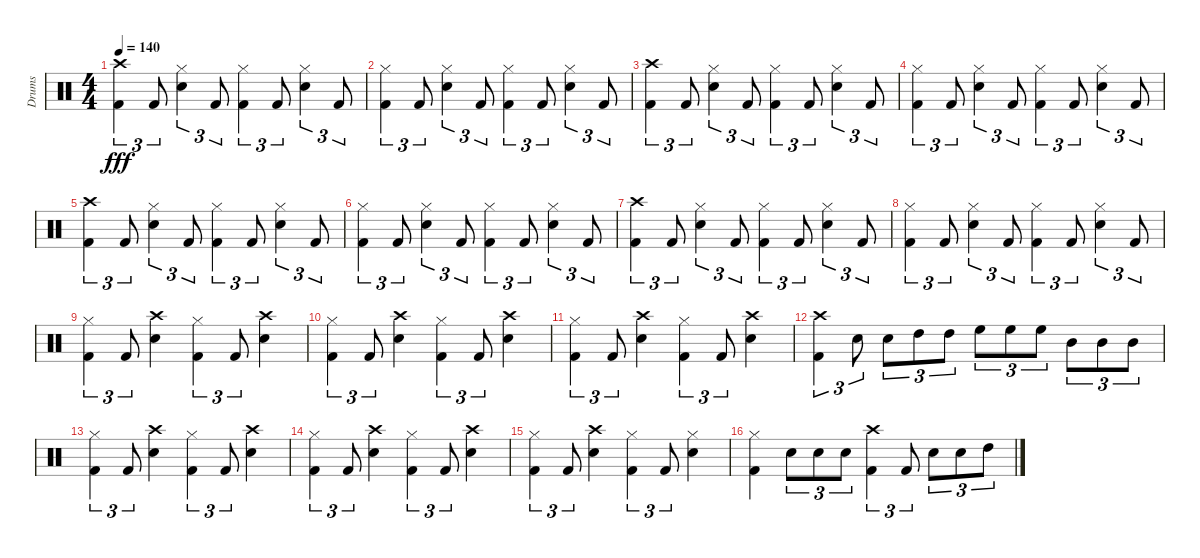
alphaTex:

\track ("Drums" "Drums") {instrument percussion}
\staff {score}
\articulation defaults
\ts (4 4)
\tempo 140
\clef neutral
\ks c
("Crash high (hit)" "Kick (hit) 2").4{tu (3 2) dy fff} "Kick (hit) 2".8{tu (3 2)} ("Hi-Hat (closed)" "Snare (hit) 2").4{tu (3 2)} "Kick (hit) 2".8{tu (3 2)} ("Kick (hit) 2" "Hi-Hat (closed)").4{tu (3 2)} "Kick (hit) 2".8{tu (3 2)} ("Hi-Hat (closed)" "Snare (hit) 2").4{tu (3 2)} "Kick (hit) 2".8{tu (3 2)} |
("Kick (hit) 2" "Hi-Hat (closed)").4{tu (3 2)} "Kick (hit) 2".8{tu (3 2)} ("Hi-Hat (closed)" "Snare (hit) 2").4{tu (3 2)} "Kick (hit) 2".8{tu (3 2)} ("Kick (hit) 2" "Hi-Hat (closed)").4{tu (3 2)} "Kick (hit) 2".8{tu (3 2)} ("Hi-Hat (closed)" "Snare (hit) 2").4{tu (3 2)} "Kick (hit) 2".8{tu (3 2)} |
("Crash high (hit)" "Kick (hit) 2").4{tu (3 2)} "Kick (hit) 2".8{tu (3 2)} ("Hi-Hat (closed)" "Snare (hit) 2").4{tu (3 2)} "Kick (hit) 2".8{tu (3 2)} ("Kick (hit) 2" "Hi-Hat (closed)").4{tu (3 2)} "Kick (hit) 2".8{tu (3 2)} ("Hi-Hat (closed)" "Snare (hit) 2").4{tu (3 2)} "Kick (hit) 2".8{tu (3 2)} |
("Kick (hit) 2" "Hi-Hat (closed)").4{tu (3 2)} "Kick (hit) 2".8{tu (3 2)} ("Hi-Hat (closed)" "Snare (hit) 2").4{tu (3 2)} "Kick (hit) 2".8{tu (3 2)} ("Kick (hit) 2" "Hi-Hat (closed)").4{tu (3 2)} "Kick (hit) 2".8{tu (3 2)} ("Hi-Hat (closed)" "Snare (hit) 2").4{tu (3 2)} "Kick (hit) 2".8{tu (3 2)} |
("Crash high (hit)" "Kick (hit) 2").4{tu (3 2)} "Kick (hit) 2".8{tu (3 2)} ("Hi-Hat (closed)" "Snare (hit) 2").4{tu (3 2)} "Kick (hit) 2".8{tu (3 2)} ("Kick (hit) 2" "Hi-Hat (closed)").4{tu (3 2)} "Kick (hit) 2".8{tu (3 2)} ("Hi-Hat (closed)" "Snare (hit) 2").4{tu (3 2)} "Kick (hit) 2".8{tu (3 2)} |
("Kick (hit) 2" "Hi-Hat (closed)").4{tu (3 2)} "Kick (hit) 2".8{tu (3 2)} ("Hi-Hat (closed)" "Snare (hit) 2").4{tu (3 2)} "Kick (hit) 2".8{tu (3 2)} ("Kick (hit) 2" "Hi-Hat (closed)").4{tu (3 2)} "Kick (hit) 2".8{tu (3 2)} ("Hi-Hat (closed)" "Snare (hit) 2").4{tu (3 2)} "Kick (hit) 2".8{tu (3 2)} |
("Crash high (hit)" "Kick (hit) 2").4{tu (3 2)} "Kick (hit) 2".8{tu (3 2)} ("Hi-Hat (closed)" "Snare (hit) 2").4{tu (3 2)} "Kick (hit) 2".8{tu (3 2)} ("Kick (hit) 2" "Hi-Hat (closed)").4{tu (3 2)} "Kick (hit) 2".8{tu (3 2)} ("Hi-Hat (closed)" "Snare (hit) 2").4{tu (3 2)} "Kick (hit) 2".8{tu (3 2)} |
("Kick (hit) 2" "Hi-Hat (closed)").4{tu (3 2)} "Kick (hit) 2".8{tu (3 2)} ("Hi-Hat (closed)" "Snare (hit) 2").4{tu (3 2)} "Kick (hit) 2".8{tu (3 2)} ("Kick (hit) 2" "Hi-Hat (closed)").4{tu (3 2)} "Kick (hit) 2".8{tu (3 2)} ("Hi-Hat (closed)" "Snare (hit) 2").4{tu (3 2)} "Kick (hit) 2".8{tu (3 2)} |
("Hi-Hat (closed)" "Kick (hit) 2").4{tu (3 2)} "Kick (hit) 2".8{tu (3 2)} ("Crash high (hit)" "Snare (hit) 2").4 ("Hi-Hat (closed)" "Kick (hit) 2").4{tu (3 2)} "Kick (hit) 2".8{tu (3 2)} ("Crash high (hit)" "Snare (hit) 2").4 |
("Hi-Hat (closed)" "Kick (hit) 2").4{tu (3 2)} "Kick (hit) 2".8{tu (3 2)} ("Crash high (hit)" "Snare (hit) 2").4 ("Hi-Hat (closed)" "Kick (hit) 2").4{tu (3 2)} "Kick (hit) 2".8{tu (3 2)} ("Crash high (hit)" "Snare (hit) 2").4 |
("Hi-Hat (closed)" "Kick (hit) 2").4{tu (3 2)} "Kick (hit) 2".8{tu (3 2)} ("Crash high (hit)" "Snare (hit) 2").4 ("Hi-Hat (closed)" "Kick (hit) 2").4{tu (3 2)} "Kick (hit) 2".8{tu (3 2)} ("Crash high (hit)" "Snare (hit) 2").4 |
("Crash high (hit)" "Kick (hit) 2").4{tu (3 2)} "Snare (hit) 2".8{tu (3 2)} "Snare (hit) 2".8{tu (3 2)} "High Tom (hit)".8{tu (3 2)} "High Tom (hit)".8{tu (3 2)} "High Floor Tom (hit)".8{tu (3 2)} "High Floor Tom (hit)".8{tu (3 2)} "High Floor Tom (hit)".8{tu (3 2)} "Mid Tom (hit)".8{tu (3 2)} "Mid Tom (hit)".8{tu (3 2)} "Mid Tom (hit)".8{tu (3 2)} |
("Hi-Hat (closed)" "Kick (hit) 2").4{tu (3 2)} "Kick (hit) 2".8{tu (3 2)} ("Crash high (hit)" "Snare (hit) 2").4 ("Hi-Hat (closed)" "Kick (hit) 2").4{tu (3 2)} "Kick (hit) 2".8{tu (3 2)} ("Crash high (hit)" "Snare (hit) 2").4 |
("Hi-Hat (closed)" "Kick (hit) 2").4{tu (3 2)} "Kick (hit) 2".8{tu (3 2)} ("Crash high (hit)" "Snare (hit) 2").4 ("Hi-Hat (closed)" "Kick (hit) 2").4{tu (3 2)} "Kick (hit) 2".8{tu (3 2)} ("Crash high (hit)" "Snare (hit) 2").4 |
("Hi-Hat (closed)" "Kick (hit) 2").4{tu (3 2)} "Kick (hit) 2".8{tu (3 2)} ("Crash high (hit)" "Snare (hit) 2").4 ("Hi-Hat (closed)" "Kick (hit) 2").4{tu (3 2)} "Kick (hit) 2".8{tu (3 2)} ("Hi-Hat (closed)" "Snare (hit) 2").4 |
("Hi-Hat (closed)" "Kick (hit) 2").4 "Snare (hit) 2".8{tu (3 2)} "Snare (hit) 2".8{tu (3 2)} "Snare (hit) 2".8{tu (3 2)} ("Crash high (hit)" "Kick (hit) 2").4{tu (3 2)} "Kick (hit) 2".8{tu (3 2)} "Snare (hit) 2".8{tu (3 2)} "Snare (hit) 2".8{tu (3 2)} "High Tom (hit)".8{tu (3 2)}
